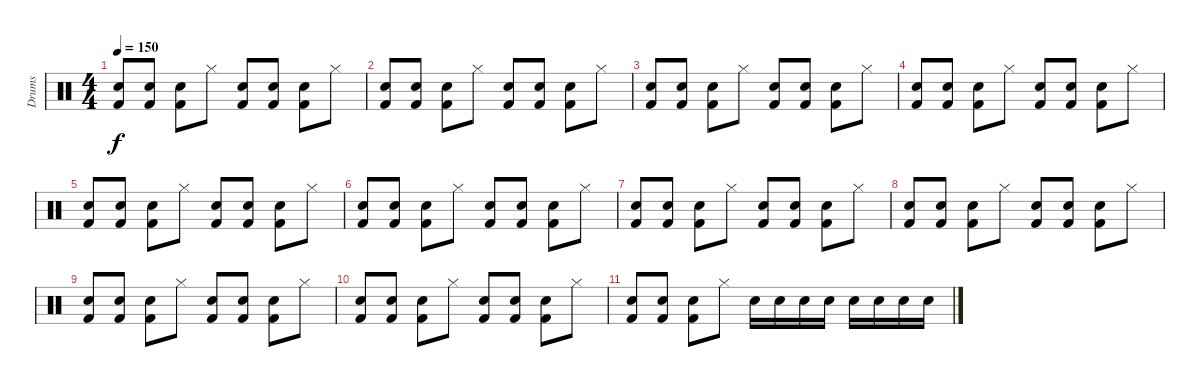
\track ("Drums" "Drums") {instrument percussion}
\staff {score}
\articulation defaults
\ts (4 4)
\tempo 150
\clef neutral
\ks c
("Snare (hit) 2" "Kick (hit) 2").8{dy f} ("Snare (hit) 2" "Kick (hit) 2").8 ("Snare (hit) 2" "Kick (hit) 2").8 "Hi-Hat (closed)".8 ("Snare (hit) 2" "Kick (hit) 2").8 ("Snare (hit) 2" "Kick (hit) 2").8 ("Snare (hit) 2" "Kick (hit) 2").8 "Hi-Hat (closed)".8 |
("Snare (hit) 2" "Kick (hit) 2").8 ("Snare (hit) 2" "Kick (hit) 2").8 ("Snare (hit) 2" "Kick (hit) 2").8 "Hi-Hat (closed)".8 ("Snare (hit) 2" "Kick (hit) 2").8 ("Snare (hit) 2" "Kick (hit) 2").8 ("Snare (hit) 2" "Kick (hit) 2").8 "Hi-Hat (closed)".8 |
("Snare (hit) 2" "Kick (hit) 2").8 ("Snare (hit) 2" "Kick (hit) 2").8 ("Snare (hit) 2" "Kick (hit) 2").8 "Hi-Hat (closed)".8 ("Snare (hit) 2" "Kick (hit) 2").8 ("Snare (hit) 2" "Kick (hit) 2").8 ("Snare (hit) 2" "Kick (hit) 2").8 "Hi-Hat (closed)".8 |
("Snare (hit) 2" "Kick (hit) 2").8 ("Snare (hit) 2" "Kick (hit) 2").8 ("Snare (hit) 2" "Kick (hit) 2").8 "Hi-Hat (closed)".8 ("Snare (hit) 2" "Kick (hit) 2").8 ("Snare (hit) 2" "Kick (hit) 2").8 ("Snare (hit) 2" "Kick (hit) 2").8 "Hi-Hat (closed)".8 |
("Snare (hit) 2" "Kick (hit) 2").8 ("Snare (hit) 2" "Kick (hit) 2").8 ("Snare (hit) 2" "Kick (hit) 2").8 "Hi-Hat (closed)".8 ("Snare (hit) 2" "Kick (hit) 2").8 ("Snare (hit) 2" "Kick (hit) 2").8 ("Snare (hit) 2" "Kick (hit) 2").8 "Hi-Hat (closed)".8 |
("Snare (hit) 2" "Kick (hit) 2").8 ("Snare (hit) 2" "Kick (hit) 2").8 ("Snare (hit) 2" "Kick (hit) 2").8 "Hi-Hat (closed)".8 ("Snare (hit) 2" "Kick (hit) 2").8 ("Snare (hit) 2" "Kick (hit) 2").8 ("Snare (hit) 2" "Kick (hit) 2").8 "Hi-Hat (closed)".8 |
("Snare (hit) 2" "Kick (hit) 2").8 ("Snare (hit) 2" "Kick (hit) 2").8 ("Snare (hit) 2" "Kick (hit) 2").8 "Hi-Hat (closed)".8 ("Snare (hit) 2" "Kick (hit) 2").8 ("Snare (hit) 2" "Kick (hit) 2").8 ("Snare (hit) 2" "Kick (hit) 2").8 "Hi-Hat (closed)".8 |
("Snare (hit) 2" "Kick (hit) 2").8 ("Snare (hit) 2" "Kick (hit) 2").8 ("Snare (hit) 2" "Kick (hit) 2").8 "Hi-Hat (closed)".8 ("Snare (hit) 2" "Kick (hit) 2").8 ("Snare (hit) 2" "Kick (hit) 2").8 ("Snare (hit) 2" "Kick (hit) 2").8 "Hi-Hat (closed)".8 |
("Snare (hit) 2" "Kick (hit) 2").8 ("Snare (hit) 2" "Kick (hit) 2").8 ("Snare (hit) 2" "Kick (hit) 2").8 "Hi-Hat (closed)".8 ("Snare (hit) 2" "Kick (hit) 2").8 ("Snare (hit) 2" "Kick (hit) 2").8 ("Snare (hit) 2" "Kick (hit) 2").8 "Hi-Hat (closed)".8 |
("Snare (hit) 2" "Kick (hit) 2").8 ("Snare (hit) 2" "Kick (hit) 2").8 ("Snare (hit) 2" "Kick (hit) 2").8 "Hi-Hat (closed)".8 ("Snare (hit) 2" "Kick (hit) 2").8 ("Snare (hit) 2" "Kick (hit) 2").8 ("Snare (hit) 2" "Kick (hit) 2").8 "Hi-Hat (closed)".8 |
("Snare (hit) 2" "Kick (hit) 2").8 ("Snare (hit) 2" "Kick (hit) 2").8 ("Snare (hit) 2" "Kick (hit) 2").8 "Hi-Hat (closed)".8 "Snare (hit) 2".16 "Snare (hit) 2".16 "Snare (hit) 2".16 "Snare (hit) 2".16 "Snare (hit) 2".16 "Snare (hit) 2".16 "Snare (hit) 2".16 "Snare (hit) 2".16
